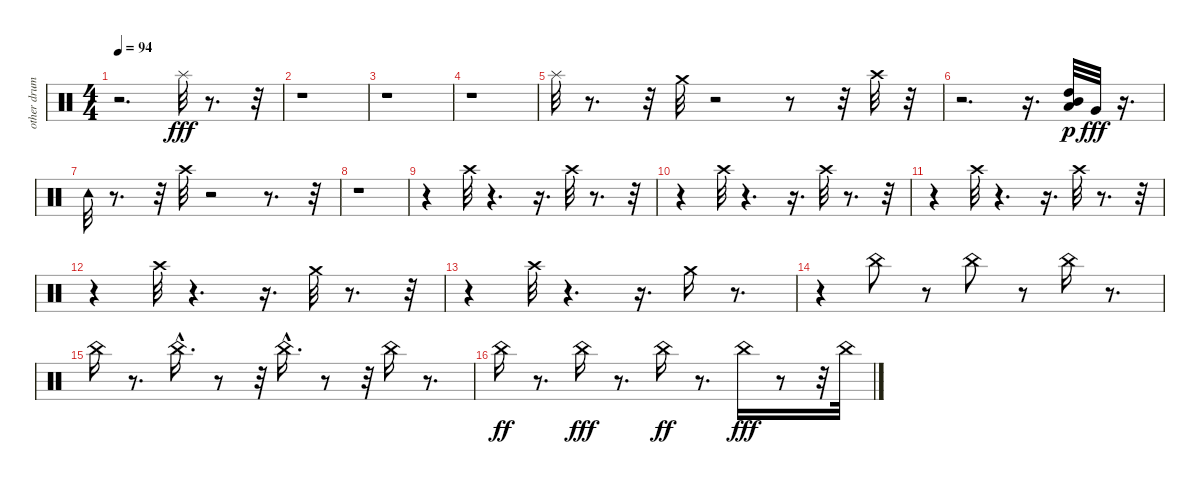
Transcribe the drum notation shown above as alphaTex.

\track ("other drums" "other drum") {instrument percussion}
\staff {score}
\articulation defaults
\ts (4 4)
\tempo 94
\clef neutral
\ks c
r.2{d dy fff} "Splash (hit)".32 r.8{d} r.32 |
r.1 |
r.1 |
r.1 |
"Splash (hit)".32 r.8{d} r.32 "Crash medium (hit)".32 r.2 r.8 r.32 "Crash high (hit)".32 r.32 |
r.2{d} r.16{d} ("Mid Tom (hit)" "High Tom (hit)" "Low Tom (hit)").32{dy p} "Very Low Tom (hit)".32{dy fff} r.16{d} |
"Tambourine (hit)".32 r.8{d} r.32 "Crash high (hit)".32 r.2 r.8{d} r.32 |
r.1 |
r.4 "Crash high (hit)".32 r.4{d} r.16{d} "Crash high (hit)".32 r.8{d} r.32 |
r.4 "Crash high (hit)".32 r.4{d} r.16{d} "Crash high (hit)".32 r.8{d} r.32 |
r.4 "Crash high (hit)".32{volume 15} r.4{d} r.16{d} "Crash high (hit)".32{volume 15} r.8{d} r.32 |
r.4 "Crash high (hit)".32{volume 15} r.4{d} r.16{d} "Crash medium (hit)".32{volume 12} r.8{d} r.32 |
r.4 "Crash high (hit)".32{volume 10} r.4{d} r.16{d} "Crash medium (hit)".16{volume 8} r.8{d} |
r.4 "China (hit)".8{volume 7} r.8 "China (hit)".8{volume 7} r.8 "China (hit)".16{volume 7} r.8{d} |
"China (hit)".16{volume 7} r.8{d} "China (hit)"{hac}.16{d volume 6} r.8 r.32 "China (hit)"{hac}.16{d volume 6} r.8 r.32 "China (hit)".16{volume 6} r.8{d} |
"China (hit)".16{dy ff volume 5} r.8{d} "China (hit)".16{dy fff volume 4} r.8{d} "China (hit)".16{dy ff volume 4} r.8{d} "China (hit)".16{dy fff} r.8 r.32 "China (hit)".32{volume 2}
